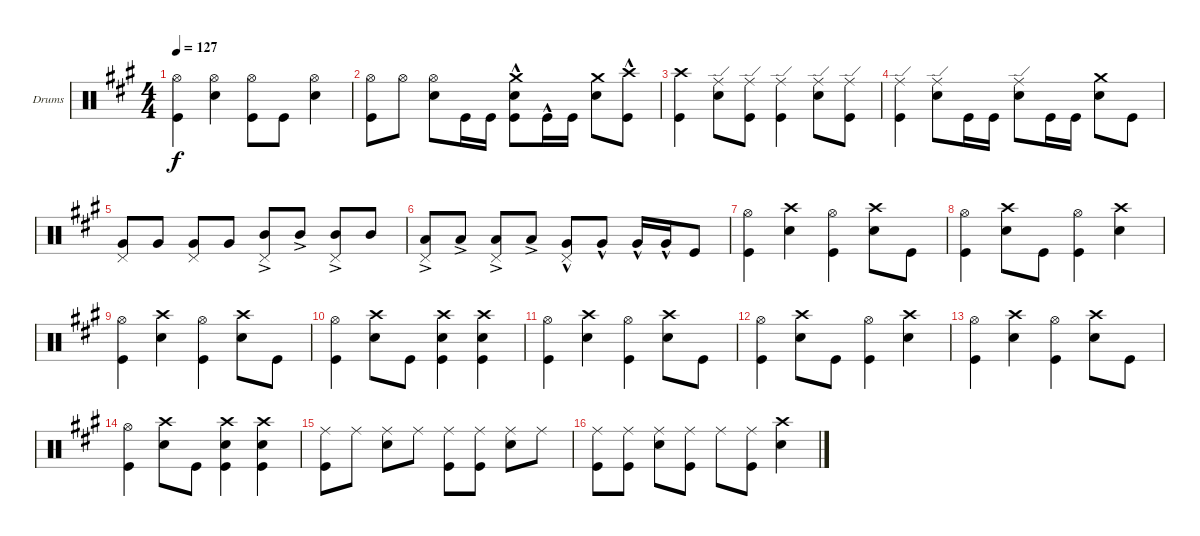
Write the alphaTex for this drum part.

\bracketExtendMode groupsimilarinstruments
\firstSystemTrackNameOrientation horizontal
\otherSystemsTrackNameOrientation horizontal
\track ("Drumkit" "Drums") {instrument percussion}
\staff {score}
\articulation defaults
\ts (4 4)
\tempo 127
\clef neutral
\ks f#minor
("Hi-Hat (open)" "Kick (hit)").4{dy f} ("Hi-Hat (open)" "Snare (hit) 2").4 ("Hi-Hat (open)" "Kick (hit)").8 "Kick (hit)".8 ("Hi-Hat (open)" "Snare (hit) 2").4 |
("Hi-Hat (open)" "Kick (hit)").8 "Hi-Hat (open)".8 ("Hi-Hat (open)" "Snare (hit) 2").8 "Kick (hit)".16 "Kick (hit)".16 ("Snare (hit) 2" "Kick (hit)"{hac} "Crash medium (hit)").8 "Kick (hit)"{hac}.16 "Kick (hit)".16 ("Crash medium (hit)" "Snare (hit) 2").8 ("Kick (hit)"{hac} "Crash high (hit)").8 |
("Kick (hit)" "Crash high (hit)").4 ("Ride (edge)" "Snare (hit) 2").8 ("Ride (edge)" "Kick (hit)").8 ("Kick (hit)" "Ride (edge)").4 ("Ride (edge)" "Snare (hit) 2").8 ("Ride (edge)" "Kick (hit)").8 |
("Kick (hit)" "Ride (edge)").4 ("Ride (edge)" "Snare (hit) 2").8 "Kick (hit)".16 "Kick (hit)".16 ("Snare (hit) 2" "Ride (edge)").8 "Kick (hit)".16 "Kick (hit)".16 ("Snare (hit) 2" "Crash medium (hit)").8 "Kick (hit)".8 |
("Pedal Hi-Hat (hit)" "Very Low Tom (hit)").8 "Very Low Tom (hit)".8 ("Pedal Hi-Hat (hit)" "Very Low Tom (hit)").8 "Very Low Tom (hit)".8 ("Pedal Hi-Hat (hit)" "Mid Tom (hit)"{ac}).8 "Mid Tom (hit)"{ac}.8 ("Pedal Hi-Hat (hit)" "Mid Tom (hit)"{ac}).8 "Mid Tom (hit)".8 |
("Pedal Hi-Hat (hit)" "Low Tom (hit)"{ac}).8 "Low Tom (hit)"{ac}.8 ("Pedal Hi-Hat (hit)" "Low Tom (hit)"{ac}).8 "Low Tom (hit)"{ac}.8 ("Pedal Hi-Hat (hit)" "Very Low Tom (hit)"{hac}).8 "Very Low Tom (hit)"{hac}.8 "Very Low Tom (hit)"{hac}.16 "Very Low Tom (hit)"{hac}.16 "Kick (hit)".8 |
("Hi-Hat (open)" "Kick (hit)").4 ("Crash high (hit)" "Snare (hit) 2").4 ("Hi-Hat (open)" "Kick (hit)").4 ("Crash high (hit)" "Snare (hit) 2").8 "Kick (hit)".8 |
("Hi-Hat (open)" "Kick (hit)").4 ("Crash high (hit)" "Snare (hit) 2").8 "Kick (hit)".8 ("Kick (hit)" "Hi-Hat (open)").4 ("Snare (hit) 2" "Crash high (hit)").4 |
("Hi-Hat (open)" "Kick (hit)").4 ("Crash high (hit)" "Snare (hit) 2").4 ("Hi-Hat (open)" "Kick (hit)").4 ("Crash high (hit)" "Snare (hit) 2").8 "Kick (hit)".8 |
("Hi-Hat (open)" "Kick (hit)").4 ("Crash high (hit)" "Snare (hit) 2").8 "Kick (hit)".8 ("Kick (hit)" "Snare (hit) 2" "Crash high (hit)").4 ("Snare (hit) 2" "Crash high (hit)" "Kick (hit)").4 |
("Hi-Hat (open)" "Kick (hit)").4 ("Crash high (hit)" "Snare (hit) 2").4 ("Hi-Hat (open)" "Kick (hit)").4 ("Crash high (hit)" "Snare (hit) 2").8 "Kick (hit)".8 |
("Hi-Hat (open)" "Kick (hit)").4 ("Crash high (hit)" "Snare (hit) 2").8 "Kick (hit)".8 ("Kick (hit)" "Hi-Hat (open)").4 ("Snare (hit) 2" "Crash high (hit)").4 |
("Hi-Hat (open)" "Kick (hit)").4 ("Crash high (hit)" "Snare (hit) 2").4 ("Hi-Hat (open)" "Kick (hit)").4 ("Crash high (hit)" "Snare (hit) 2").8 "Kick (hit)".8 |
("Hi-Hat (open)" "Kick (hit)").4 ("Crash high (hit)" "Snare (hit) 2").8 "Kick (hit)".8 ("Kick (hit)" "Snare (hit) 2" "Crash high (hit)").4 ("Snare (hit) 2" "Crash high (hit)" "Kick (hit)").4 |
("Kick (hit)" "Ride (middle)").8 "Ride (middle)".8 ("Ride (middle)" "Snare (hit) 2").8 "Ride (middle)".8 ("Kick (hit)" "Ride (middle)").8 ("Ride (middle)" "Kick (hit)").8 ("Ride (middle)" "Snare (hit) 2").8 "Ride (middle)".8 |
("Kick (hit)" "Ride (middle)").8 ("Ride (middle)" "Kick (hit)").8 ("Ride (middle)" "Snare (hit) 2").8 ("Ride (middle)" "Kick (hit)").8 "Ride (middle)".8 ("Ride (middle)" "Kick (hit)").8 ("Snare (hit) 2" "Crash high (hit)").4
